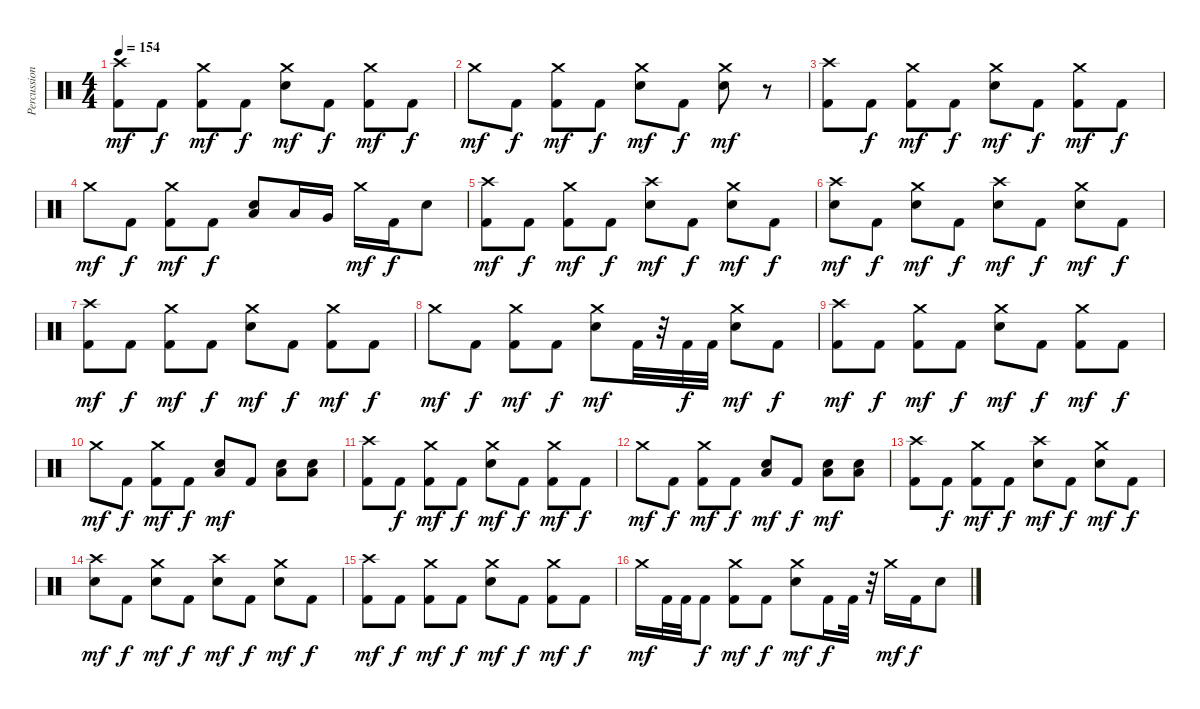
\track ("Percussion" "Percussion") {instrument percussion}
\staff {score}
\articulation defaults
\ts (4 4)
\tempo 154
\clef neutral
\ks c
("Crash high (hit)" "Kick (hit) 2").8{dy mf} "Kick (hit) 2".8{dy f} ("Crash medium (hit)" "Kick (hit) 2").8{dy mf} "Kick (hit) 2".8{dy f} ("Crash medium (hit)" "Electric Snare (hit)").8{dy mf} "Kick (hit) 2".8{dy f} ("Crash medium (hit)" "Kick (hit) 2").8{dy mf} "Kick (hit) 2".8{dy f} |
"Crash medium (hit)".8{dy mf} "Kick (hit) 2".8{dy f} ("Crash medium (hit)" "Kick (hit) 2").8{dy mf} "Kick (hit) 2".8{dy f} ("Crash medium (hit)" "Electric Snare (hit)").8{dy mf} "Kick (hit) 2".8{dy f} ("Crash medium (hit)" "Electric Snare (hit)").8{dy mf} r.8 |
("Crash high (hit)" "Kick (hit) 2").8 "Kick (hit) 2".8{dy f} ("Crash medium (hit)" "Kick (hit) 2").8{dy mf} "Kick (hit) 2".8{dy f} ("Crash medium (hit)" "Electric Snare (hit)").8{dy mf} "Kick (hit) 2".8{dy f} ("Crash medium (hit)" "Kick (hit) 2").8{dy mf} "Kick (hit) 2".8{dy f} |
"Crash medium (hit)".8{dy mf} "Kick (hit) 2".8{dy f} ("Crash medium (hit)" "Kick (hit) 2").8{dy mf} "Kick (hit) 2".8{dy f} ("Low Tom (hit)" "Electric Snare (hit)").8 "Low Tom (hit)".16 "Very Low Tom (hit)".16 "Crash medium (hit)".16{dy mf} "Kick (hit) 2".16{dy f} "Electric Snare (hit)".8 |
("Crash high (hit)" "Kick (hit) 2").8{dy mf} "Kick (hit) 2".8{dy f} ("Crash medium (hit)" "Kick (hit) 2").8{dy mf} "Kick (hit) 2".8{dy f} ("Crash high (hit)" "Electric Snare (hit)").8{dy mf} "Kick (hit) 2".8{dy f} ("Crash medium (hit)" "Electric Snare (hit)").8{dy mf} "Kick (hit) 2".8{dy f} |
("Crash high (hit)" "Electric Snare (hit)").8{dy mf} "Kick (hit) 2".8{dy f} ("Crash medium (hit)" "Electric Snare (hit)").8{dy mf} "Kick (hit) 2".8{dy f} ("Crash high (hit)" "Electric Snare (hit)").8{dy mf} "Kick (hit) 2".8{dy f} ("Crash medium (hit)" "Electric Snare (hit)").8{dy mf} "Kick (hit) 2".8{dy f} |
("Crash high (hit)" "Kick (hit) 2").8{dy mf} "Kick (hit) 2".8{dy f} ("Crash medium (hit)" "Kick (hit) 2").8{dy mf} "Kick (hit) 2".8{dy f} ("Crash medium (hit)" "Electric Snare (hit)").8{dy mf} "Kick (hit) 2".8{dy f} ("Crash medium (hit)" "Kick (hit) 2").8{dy mf} "Kick (hit) 2".8{dy f} |
"Crash medium (hit)".8{dy mf} "Kick (hit) 2".8{dy f} ("Crash medium (hit)" "Kick (hit) 2").8{dy mf} "Kick (hit) 2".8{dy f} ("Crash medium (hit)" "Electric Snare (hit)").8{dy mf} "Kick (hit) 2".32 r.32 "Kick (hit) 2".32{dy f} "Kick (hit) 2".32 ("Crash medium (hit)" "Electric Snare (hit)").8{dy mf} "Kick (hit) 2".8{dy f} |
("Crash high (hit)" "Kick (hit) 2").8{dy mf} "Kick (hit) 2".8{dy f} ("Crash medium (hit)" "Kick (hit) 2").8{dy mf} "Kick (hit) 2".8{dy f} ("Crash medium (hit)" "Electric Snare (hit)").8{dy mf} "Kick (hit) 2".8{dy f} ("Crash medium (hit)" "Kick (hit) 2").8{dy mf} "Kick (hit) 2".8{dy f} |
"Crash medium (hit)".8{dy mf} "Kick (hit) 2".8{dy f} ("Crash medium (hit)" "Kick (hit) 2").8{dy mf} "Kick (hit) 2".8{dy f} ("Low Floor Tom (hit)" "Electric Snare (hit)").8{dy mf} "Kick (hit) 2".8 ("Low Floor Tom (hit)" "Electric Snare (hit)").8 ("Low Floor Tom (hit)" "Electric Snare (hit)").8 |
("Crash high (hit)" "Kick (hit) 2").8 "Kick (hit) 2".8{dy f} ("Crash medium (hit)" "Kick (hit) 2").8{dy mf} "Kick (hit) 2".8{dy f} ("Crash medium (hit)" "Electric Snare (hit)").8{dy mf} "Kick (hit) 2".8{dy f} ("Crash medium (hit)" "Kick (hit) 2").8{dy mf} "Kick (hit) 2".8{dy f} |
"Crash medium (hit)".8{dy mf} "Kick (hit) 2".8{dy f} ("Crash medium (hit)" "Kick (hit) 2").8{dy mf} "Kick (hit) 2".8{dy f} ("Low Tom (hit)" "Electric Snare (hit)").8{dy mf} "Kick (hit) 2".8{dy f} ("Low Tom (hit)" "Electric Snare (hit)").8{dy mf} ("Low Tom (hit)" "Electric Snare (hit)").8 |
("Crash high (hit)" "Kick (hit) 2").8 "Kick (hit) 2".8{dy f} ("Crash medium (hit)" "Kick (hit) 2").8{dy mf} "Kick (hit) 2".8{dy f} ("Crash high (hit)" "Electric Snare (hit)").8{dy mf} "Kick (hit) 2".8{dy f} ("Crash medium (hit)" "Electric Snare (hit)").8{dy mf} "Kick (hit) 2".8{dy f} |
("Crash high (hit)" "Electric Snare (hit)").8{dy mf} "Kick (hit) 2".8{dy f} ("Crash medium (hit)" "Electric Snare (hit)").8{dy mf} "Kick (hit) 2".8{dy f} ("Crash high (hit)" "Electric Snare (hit)").8{dy mf} "Kick (hit) 2".8{dy f} ("Crash medium (hit)" "Electric Snare (hit)").8{dy mf} "Kick (hit) 2".8{dy f} |
("Crash high (hit)" "Kick (hit) 2").8{dy mf} "Kick (hit) 2".8{dy f} ("Crash medium (hit)" "Kick (hit) 2").8{dy mf} "Kick (hit) 2".8{dy f} ("Crash medium (hit)" "Electric Snare (hit)").8{dy mf} "Kick (hit) 2".8{dy f} ("Crash medium (hit)" "Kick (hit) 2").8{dy mf} "Kick (hit) 2".8{dy f} |
"Crash medium (hit)".16{dy mf} "Kick (hit) 2".32 "Kick (hit) 2".32 "Kick (hit) 2".8{dy f} ("Crash medium (hit)" "Kick (hit) 2").8{dy mf} "Kick (hit) 2".8{dy f} ("Crash medium (hit)" "Electric Snare (hit)").8{dy mf} "Kick (hit) 2".16{dy f} "Kick (hit) 2".32 r.32 "Crash medium (hit)".16{dy mf} "Kick (hit) 2".16{dy f} "Electric Snare (hit)".8
